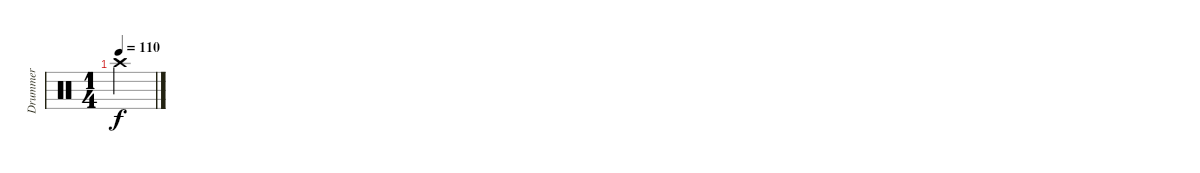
\track ("Drummer" "Drummer") {instrument percussion}
\staff {score}
\articulation defaults
\ts (1 4)
\tempo 110
\clef neutral
\ks c "Crash high (hit)".4{dy f}
